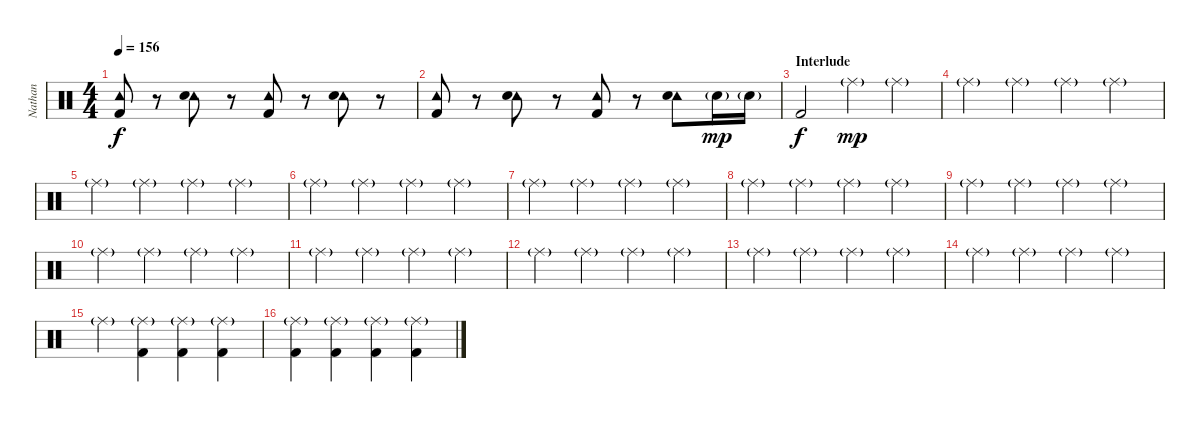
\track ("Nathan" "Nathan") {instrument percussion}
\staff {score}
\articulation defaults
\ts (4 4)
\tempo 156
\clef neutral
\ks c
("Tambourine (hit)" "Kick (hit) 2").8{dy f} r.8 ("Tambourine (hit)" "Electric Snare (hit)").8 r.8 ("Tambourine (hit)" "Kick (hit) 2").8 r.8 ("Tambourine (hit)" "Electric Snare (hit)").8 r.8 |
("Tambourine (hit)" "Kick (hit) 2").8 r.8 ("Tambourine (hit)" "Electric Snare (hit)").8 r.8 ("Tambourine (hit)" "Kick (hit) 2").8 r.8 ("Tambourine (hit)" "Electric Snare (hit)").8 "Electric Snare (hit)"{g}.16{dy mp} "Electric Snare (hit)"{g}.16 |
\section ("" "Interlude")
"Kick (hit) 2".2{dy f} "Ride (middle)"{g}.4{dy mp} "Ride (middle)"{g}.4 |
"Ride (middle)"{g}.4 "Ride (middle)"{g}.4 "Ride (middle)"{g}.4 "Ride (middle)"{g}.4 |
"Ride (middle)"{g}.4 "Ride (middle)"{g}.4 "Ride (middle)"{g}.4 "Ride (middle)"{g}.4 |
"Ride (middle)"{g}.4 "Ride (middle)"{g}.4 "Ride (middle)"{g}.4 "Ride (middle)"{g}.4 |
"Ride (middle)"{g}.4 "Ride (middle)"{g}.4 "Ride (middle)"{g}.4 "Ride (middle)"{g}.4 |
"Ride (middle)"{g}.4 "Ride (middle)"{g}.4 "Ride (middle)"{g}.4 "Ride (middle)"{g}.4 |
"Ride (middle)"{g}.4 "Ride (middle)"{g}.4 "Ride (middle)"{g}.4 "Ride (middle)"{g}.4 |
"Ride (middle)"{g}.4 "Ride (middle)"{g}.4 "Ride (middle)"{g}.4 "Ride (middle)"{g}.4 |
"Ride (middle)"{g}.4 "Ride (middle)"{g}.4 "Ride (middle)"{g}.4 "Ride (middle)"{g}.4 |
"Ride (middle)"{g}.4 "Ride (middle)"{g}.4 "Ride (middle)"{g}.4 "Ride (middle)"{g}.4 |
"Ride (middle)"{g}.4 "Ride (middle)"{g}.4 "Ride (middle)"{g}.4 "Ride (middle)"{g}.4 |
"Ride (middle)"{g}.4 "Ride (middle)"{g}.4 "Ride (middle)"{g}.4 "Ride (middle)"{g}.4 |
"Ride (middle)"{g}.4 ("Ride (middle)"{g} "Kick (hit) 2").4 ("Ride (middle)"{g} "Kick (hit) 2").4 ("Ride (middle)"{g} "Kick (hit) 2").4 |
("Ride (middle)"{g} "Kick (hit) 2").4 ("Ride (middle)"{g} "Kick (hit) 2").4 ("Ride (middle)"{g} "Kick (hit) 2").4 ("Ride (middle)"{g} "Kick (hit) 2").4
